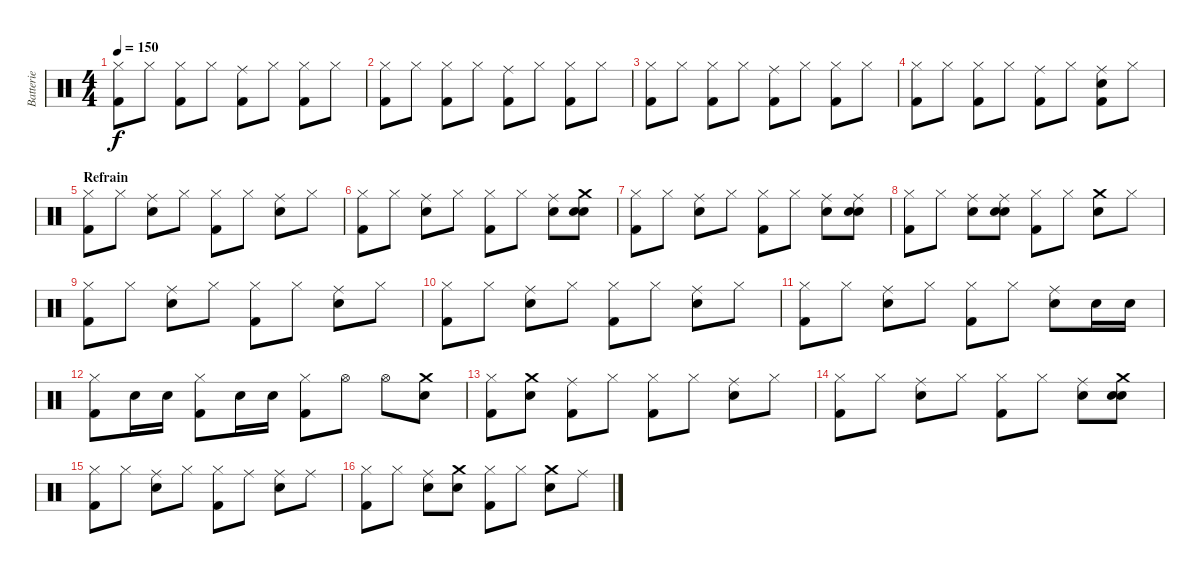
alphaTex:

\track ("Batterie" "Batterie") {instrument percussion}
\staff {score}
\articulation defaults
\ts (4 4)
\tempo 150
\clef neutral
\ks c
("Hi-Hat (closed)" "Kick (hit) 2").8{dy f} "Hi-Hat (closed)".8 ("Hi-Hat (closed)" "Kick (hit) 2").8 "Hi-Hat (closed)".8 ("Ride (middle)" "Kick (hit) 2").8 "Hi-Hat (closed)".8 ("Hi-Hat (closed)" "Kick (hit) 2").8 "Hi-Hat (closed)".8 |
("Hi-Hat (closed)" "Kick (hit) 2").8 "Hi-Hat (closed)".8 ("Hi-Hat (closed)" "Kick (hit) 2").8 "Hi-Hat (closed)".8 ("Ride (middle)" "Kick (hit) 2").8 "Hi-Hat (closed)".8 ("Hi-Hat (closed)" "Kick (hit) 2").8 "Hi-Hat (closed)".8 |
("Hi-Hat (closed)" "Kick (hit) 2").8 "Hi-Hat (closed)".8 ("Hi-Hat (closed)" "Kick (hit) 2").8 "Hi-Hat (closed)".8 ("Ride (middle)" "Kick (hit) 2").8 "Hi-Hat (closed)".8 ("Hi-Hat (closed)" "Kick (hit) 2").8 "Hi-Hat (closed)".8 |
("Hi-Hat (closed)" "Kick (hit) 2").8 "Hi-Hat (closed)".8 ("Hi-Hat (closed)" "Kick (hit) 2").8 "Hi-Hat (closed)".8 ("Ride (middle)" "Kick (hit) 2").8 "Hi-Hat (closed)".8 ("Ride (middle)" "Kick (hit) 2" "Electric Snare (hit)").8 "Hi-Hat (closed)".8 |
\section ("" "Refrain")
("Hi-Hat (closed)" "Kick (hit) 2").8 "Hi-Hat (closed)".8 ("Ride (middle)" "Electric Snare (hit)").8 "Hi-Hat (closed)".8 ("Hi-Hat (closed)" "Kick (hit) 2").8 "Hi-Hat (closed)".8 ("Ride (middle)" "Electric Snare (hit)").8 "Hi-Hat (closed)".8 |
("Hi-Hat (closed)" "Kick (hit) 2").8 "Hi-Hat (closed)".8 ("Ride (middle)" "Electric Snare (hit)").8 "Hi-Hat (closed)".8 ("Hi-Hat (closed)" "Kick (hit) 2").8 "Hi-Hat (closed)".8 ("Ride (middle)" "Electric Snare (hit)").8 ("Crash medium (hit)" "Electric Snare (hit)" "Electric Snare (hit)").8 |
("Hi-Hat (closed)" "Kick (hit) 2").8 "Hi-Hat (closed)".8 ("Ride (middle)" "Electric Snare (hit)").8 "Hi-Hat (closed)".8 ("Hi-Hat (closed)" "Kick (hit) 2").8 "Hi-Hat (closed)".8 ("Ride (middle)" "Electric Snare (hit)").8 ("Ride (middle)" "Electric Snare (hit)" "Electric Snare (hit)").8 |
("Hi-Hat (closed)" "Kick (hit) 2").8 "Hi-Hat (closed)".8 ("Ride (middle)" "Electric Snare (hit)").8 ("Ride (middle)" "Electric Snare (hit)" "Electric Snare (hit)").8 ("Hi-Hat (closed)" "Kick (hit) 2").8 "Hi-Hat (closed)".8 ("Crash medium (hit)" "Electric Snare (hit)").8 "Hi-Hat (closed)".8 |
("Hi-Hat (closed)" "Kick (hit) 2").8 "Hi-Hat (closed)".8 ("Ride (middle)" "Electric Snare (hit)").8 "Hi-Hat (closed)".8 ("Hi-Hat (closed)" "Kick (hit) 2").8 "Hi-Hat (closed)".8 ("Ride (middle)" "Electric Snare (hit)").8 "Hi-Hat (closed)".8 |
("Hi-Hat (closed)" "Kick (hit) 2").8 "Hi-Hat (closed)".8 ("Ride (middle)" "Electric Snare (hit)").8 "Hi-Hat (closed)".8 ("Hi-Hat (closed)" "Kick (hit) 2").8 "Hi-Hat (closed)".8 ("Ride (middle)" "Electric Snare (hit)").8 "Hi-Hat (closed)".8 |
("Hi-Hat (closed)" "Kick (hit) 2").8 "Hi-Hat (closed)".8 ("Ride (middle)" "Electric Snare (hit)").8 "Hi-Hat (closed)".8 ("Hi-Hat (closed)" "Kick (hit) 2").8 "Hi-Hat (closed)".8 ("Ride (middle)" "Electric Snare (hit)").8 "Electric Snare (hit)".16 "Electric Snare (hit)".16 |
("Hi-Hat (closed)" "Kick (hit) 2").8 "Electric Snare (hit)".16 "Electric Snare (hit)".16 ("Hi-Hat (closed)" "Kick (hit) 2").8 "Electric Snare (hit)".16 "Electric Snare (hit)".16 ("Hi-Hat (closed)" "Kick (hit) 2").8 "Hi-Hat (open)".8 "Hi-Hat (open)".8 ("Crash medium (hit)" "Electric Snare (hit)").8 |
("Hi-Hat (closed)" "Kick (hit) 2").8 ("Crash medium (hit)" "Electric Snare (hit)").8 ("Ride (middle)" "Kick (hit) 2").8 "Hi-Hat (closed)".8 ("Hi-Hat (closed)" "Kick (hit) 2").8 "Hi-Hat (closed)".8 ("Ride (middle)" "Electric Snare (hit)").8 "Hi-Hat (closed)".8 |
("Hi-Hat (closed)" "Kick (hit) 2").8 "Hi-Hat (closed)".8 ("Ride (middle)" "Electric Snare (hit)").8 "Hi-Hat (closed)".8 ("Hi-Hat (closed)" "Kick (hit) 2").8 "Hi-Hat (closed)".8 ("Ride (middle)" "Electric Snare (hit)").8 ("Crash medium (hit)" "Electric Snare (hit)" "Electric Snare (hit)").8 |
("Hi-Hat (closed)" "Kick (hit) 2").8 "Hi-Hat (closed)".8 ("Ride (middle)" "Electric Snare (hit)").8 "Hi-Hat (closed)".8 ("Hi-Hat (closed)" "Kick (hit) 2").8 "Ride (middle)".8 ("Ride (middle)" "Electric Snare (hit)").8 "Ride (middle)".8 |
("Hi-Hat (closed)" "Kick (hit) 2").8 "Hi-Hat (closed)".8 ("Ride (middle)" "Electric Snare (hit)").8 ("Crash medium (hit)" "Electric Snare (hit)").8 ("Hi-Hat (closed)" "Kick (hit) 2").8 "Hi-Hat (closed)".8 ("Crash medium (hit)" "Electric Snare (hit)").8 "Ride (middle)".8
